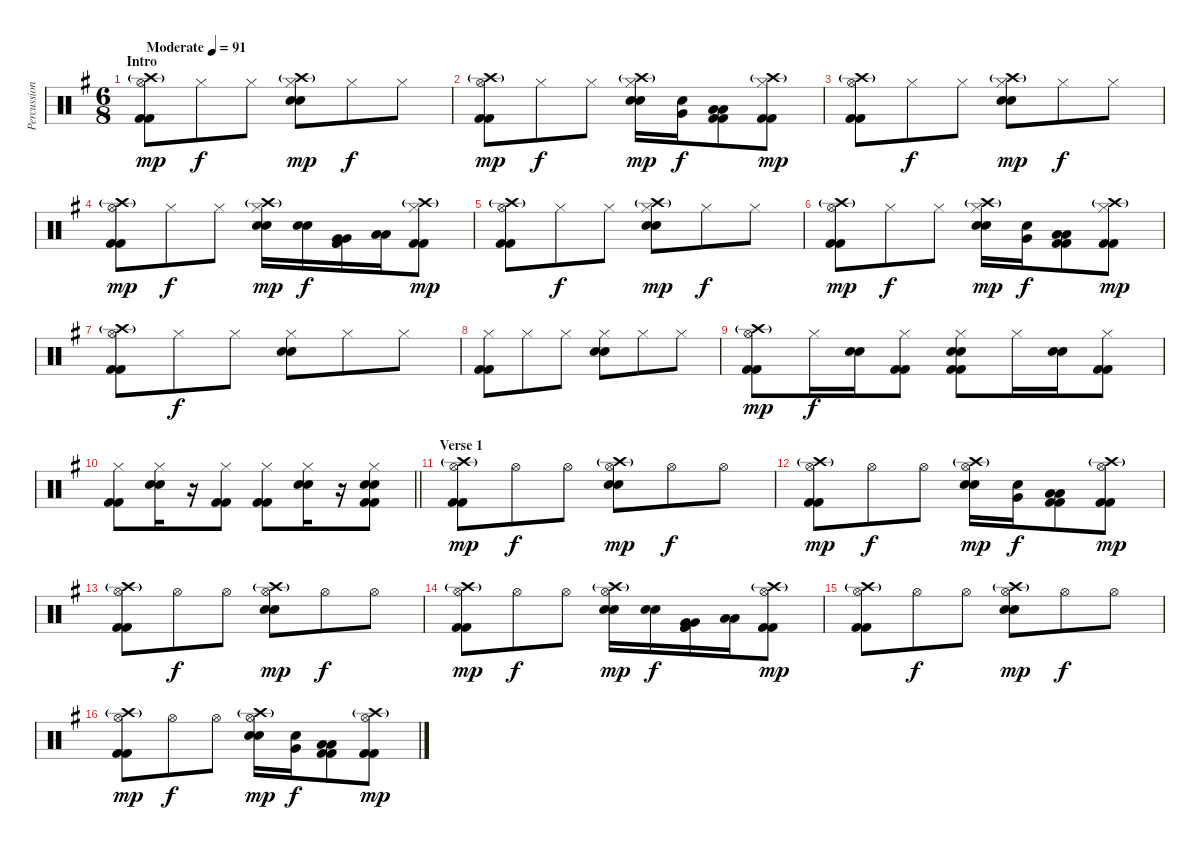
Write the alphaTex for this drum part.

\track ("Percussion" "Percussion") {instrument percussion}
\staff {score}
\articulation defaults
\ts (6 8)
\section ("" "Intro")
\tempo (91 "Moderate")
\clef neutral
\ks eminor
("Hi-Hat (open)" "Crash high (hit)"{g} "Kick (hit) 2" "Kick (hit) 2").8{dy mp} "Hi-Hat (closed)".8{dy f} "Hi-Hat (closed)".8 ("Hi-Hat (closed)" "Crash high (hit)"{g} "Snare (hit) 2" "Snare (hit) 2").8{dy mp} "Hi-Hat (closed)".8{dy f} "Hi-Hat (closed)".8 |
("Hi-Hat (open)" "Crash high (hit)"{g} "Kick (hit) 2" "Kick (hit) 2").8{dy mp} "Hi-Hat (closed)".8{dy f} "Hi-Hat (closed)".8 ("Hi-Hat (closed)" "Crash high (hit)"{g} "Snare (hit) 2" "Snare (hit) 2").16{dy mp} ("Snare (hit) 2" "Very Low Tom (hit)").16{dy f} ("Low Floor Tom (hit)" "Low Floor Tom (hit)" "Kick (hit) 2" "Kick (hit) 2").8 ("Hi-Hat (closed)" "Crash high (hit)"{g} "Kick (hit) 2" "Kick (hit) 2").8{dy mp} |
("Hi-Hat (open)" "Crash high (hit)"{g} "Kick (hit) 2" "Kick (hit) 2").8 "Hi-Hat (closed)".8{dy f} "Hi-Hat (closed)".8 ("Hi-Hat (closed)" "Crash high (hit)"{g} "Snare (hit) 2" "Snare (hit) 2").8{dy mp} "Hi-Hat (closed)".8{dy f} "Hi-Hat (closed)".8 |
("Hi-Hat (open)" "Crash high (hit)"{g} "Kick (hit) 2" "Kick (hit) 2").8{dy mp} "Hi-Hat (closed)".8{dy f} "Hi-Hat (closed)".8 ("Hi-Hat (closed)" "Crash high (hit)"{g} "Snare (hit) 2" "Snare (hit) 2").16{dy mp} ("Snare (hit) 2" "Snare (hit) 2").16{dy f} ("Very Low Tom (hit)" "Very Low Tom (hit)" "Kick (hit) 2" "Kick (hit) 2").16 ("Low Floor Tom (hit)" "Low Floor Tom (hit)").16 ("Hi-Hat (closed)" "Crash high (hit)"{g} "Kick (hit) 2" "Kick (hit) 2").8{dy mp} |
("Hi-Hat (open)" "Crash high (hit)"{g} "Kick (hit) 2" "Kick (hit) 2").8 "Hi-Hat (closed)".8{dy f} "Hi-Hat (closed)".8 ("Hi-Hat (closed)" "Crash high (hit)"{g} "Snare (hit) 2" "Snare (hit) 2").8{dy mp} "Hi-Hat (closed)".8{dy f} "Hi-Hat (closed)".8 |
("Hi-Hat (open)" "Crash high (hit)"{g} "Kick (hit) 2" "Kick (hit) 2").8{dy mp} "Hi-Hat (closed)".8{dy f} "Hi-Hat (closed)".8 ("Hi-Hat (closed)" "Crash high (hit)"{g} "Snare (hit) 2" "Snare (hit) 2").16{dy mp} ("Snare (hit) 2" "Very Low Tom (hit)").16{dy f} ("Low Floor Tom (hit)" "Low Floor Tom (hit)" "Kick (hit) 2" "Kick (hit) 2").8 ("Hi-Hat (closed)" "Crash high (hit)"{g} "Kick (hit) 2" "Kick (hit) 2").8{dy mp} |
("Hi-Hat (open)" "Crash high (hit)"{g} "Kick (hit) 2" "Kick (hit) 2").8 "Hi-Hat (closed)".8{dy f} "Hi-Hat (closed)".8 ("Hi-Hat (closed)" "Snare (hit) 2" "Snare (hit) 2").8 "Hi-Hat (closed)".8 "Hi-Hat (closed)".8 |
("Hi-Hat (closed)" "Kick (hit) 2" "Kick (hit) 2").8 "Hi-Hat (closed)".8 "Hi-Hat (closed)".8 ("Hi-Hat (closed)" "Snare (hit) 2" "Snare (hit) 2").8 "Hi-Hat (closed)".8 "Hi-Hat (closed)".8 |
("Hi-Hat (open)" "Crash high (hit)"{g} "Kick (hit) 2" "Kick (hit) 2").8{dy mp} "Hi-Hat (closed)".16{dy f} ("Snare (hit) 2" "Snare (hit) 2").16 ("Hi-Hat (closed)" "Kick (hit) 2" "Kick (hit) 2").8 ("Hi-Hat (closed)" "Snare (hit) 2" "Snare (hit) 2" "Kick (hit) 2" "Kick (hit) 2").8 "Hi-Hat (closed)".16 ("Snare (hit) 2" "Snare (hit) 2").16 ("Hi-Hat (closed)" "Kick (hit) 2" "Kick (hit) 2").8 |
\barLineRight lightlight
("Hi-Hat (closed)" "Kick (hit) 2" "Kick (hit) 2").8 ("Hi-Hat (closed)" "Snare (hit) 2" "Snare (hit) 2").16 r.16 ("Hi-Hat (closed)" "Kick (hit) 2" "Kick (hit) 2").8 ("Hi-Hat (closed)" "Kick (hit) 2" "Kick (hit) 2").8 ("Hi-Hat (closed)" "Snare (hit) 2" "Snare (hit) 2").16 r.16 ("Hi-Hat (closed)" "Snare (hit) 2" "Snare (hit) 2" "Kick (hit) 2" "Kick (hit) 2").8 |
\section ("" "Verse 1")
("Hi-Hat (open)" "Crash high (hit)"{g} "Kick (hit) 2" "Kick (hit) 2").8{dy mp} "Hi-Hat (open)".8{dy f} "Hi-Hat (open)".8 ("Hi-Hat (open)" "Crash high (hit)"{g} "Snare (hit) 2" "Snare (hit) 2").8{dy mp} "Hi-Hat (open)".8{dy f} "Hi-Hat (open)".8 |
("Hi-Hat (open)" "Crash high (hit)"{g} "Kick (hit) 2" "Kick (hit) 2").8{dy mp} "Hi-Hat (open)".8{dy f} "Hi-Hat (open)".8 ("Hi-Hat (open)" "Crash high (hit)"{g} "Snare (hit) 2" "Snare (hit) 2").16{dy mp} ("Snare (hit) 2" "Very Low Tom (hit)").16{dy f} ("Low Floor Tom (hit)" "Low Floor Tom (hit)" "Kick (hit) 2" "Kick (hit) 2").8 ("Hi-Hat (open)" "Crash high (hit)"{g} "Kick (hit) 2" "Kick (hit) 2").8{dy mp} |
("Hi-Hat (open)" "Crash high (hit)"{g} "Kick (hit) 2" "Kick (hit) 2").8 "Hi-Hat (open)".8{dy f} "Hi-Hat (open)".8 ("Hi-Hat (open)" "Crash high (hit)"{g} "Snare (hit) 2" "Snare (hit) 2").8{dy mp} "Hi-Hat (open)".8{dy f} "Hi-Hat (open)".8 |
("Hi-Hat (open)" "Crash high (hit)"{g} "Kick (hit) 2" "Kick (hit) 2").8{dy mp} "Hi-Hat (open)".8{dy f} "Hi-Hat (open)".8 ("Hi-Hat (open)" "Crash high (hit)"{g} "Snare (hit) 2" "Snare (hit) 2").16{dy mp} ("Snare (hit) 2" "Snare (hit) 2").16{dy f} ("Very Low Tom (hit)" "Very Low Tom (hit)" "Kick (hit) 2" "Kick (hit) 2").16 ("Low Floor Tom (hit)" "Low Floor Tom (hit)").16 ("Hi-Hat (open)" "Crash high (hit)"{g} "Kick (hit) 2" "Kick (hit) 2").8{dy mp} |
("Hi-Hat (open)" "Crash high (hit)"{g} "Kick (hit) 2" "Kick (hit) 2").8 "Hi-Hat (open)".8{dy f} "Hi-Hat (open)".8 ("Hi-Hat (open)" "Crash high (hit)"{g} "Snare (hit) 2" "Snare (hit) 2").8{dy mp} "Hi-Hat (open)".8{dy f} "Hi-Hat (open)".8 |
("Hi-Hat (open)" "Crash high (hit)"{g} "Kick (hit) 2" "Kick (hit) 2").8{dy mp} "Hi-Hat (open)".8{dy f} "Hi-Hat (open)".8 ("Hi-Hat (open)" "Crash high (hit)"{g} "Snare (hit) 2" "Snare (hit) 2").16{dy mp} ("Snare (hit) 2" "Very Low Tom (hit)").16{dy f} ("Low Floor Tom (hit)" "Low Floor Tom (hit)" "Kick (hit) 2" "Kick (hit) 2").8 ("Hi-Hat (open)" "Crash high (hit)"{g} "Kick (hit) 2" "Kick (hit) 2").8{dy mp}
